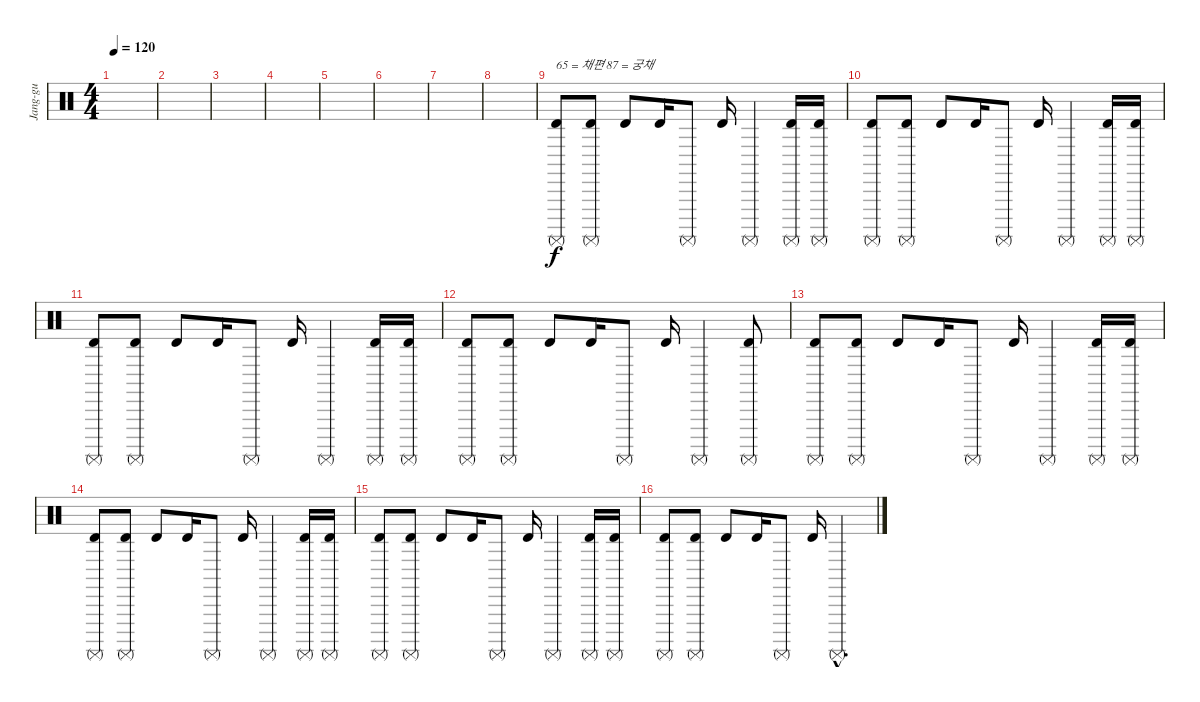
\track ("Jang-gu" "Jang-gu") {instrument percussion}
\staff {score}
\articulation defaults
\ts (4 4)
\tempo 120
\clef neutral
\ks c
|
|
|
|
|
|
|
|
("Timbale high (hit)" "Surdo (mute)").8{txt "65 = 채편 87 = 궁채"} ("Timbale high (hit)" "Surdo (mute)").8 "Timbale high (hit)".8 "Timbale high (hit)".16 "Surdo (mute)".8 "Timbale high (hit)".16 "Surdo (mute)".4 ("Timbale high (hit)" "Surdo (mute)").16 ("Timbale high (hit)" "Surdo (mute)").16 |
("Timbale high (hit)" "Surdo (mute)").8 ("Timbale high (hit)" "Surdo (mute)").8 "Timbale high (hit)".8 "Timbale high (hit)".16 "Surdo (mute)".8 "Timbale high (hit)".16 "Surdo (mute)".4 ("Timbale high (hit)" "Surdo (mute)").16 ("Timbale high (hit)" "Surdo (mute)").16 |
("Timbale high (hit)" "Surdo (mute)").8 ("Timbale high (hit)" "Surdo (mute)").8 "Timbale high (hit)".8 "Timbale high (hit)".16 "Surdo (mute)".8 "Timbale high (hit)".16 "Surdo (mute)".4 ("Timbale high (hit)" "Surdo (mute)").16 ("Timbale high (hit)" "Surdo (mute)").16 |
("Timbale high (hit)" "Surdo (mute)").8 ("Timbale high (hit)" "Surdo (mute)").8 "Timbale high (hit)".8 "Timbale high (hit)".16 "Surdo (mute)".8 "Timbale high (hit)".16 "Surdo (mute)".4 ("Timbale high (hit)" "Surdo (mute)").8 |
("Timbale high (hit)" "Surdo (mute)").8 ("Timbale high (hit)" "Surdo (mute)").8 "Timbale high (hit)".8 "Timbale high (hit)".16 "Surdo (mute)".8 "Timbale high (hit)".16 "Surdo (mute)".4 ("Timbale high (hit)" "Surdo (mute)").16 ("Timbale high (hit)" "Surdo (mute)").16 |
("Timbale high (hit)" "Surdo (mute)").8 ("Timbale high (hit)" "Surdo (mute)").8 "Timbale high (hit)".8 "Timbale high (hit)".16 "Surdo (mute)".8 "Timbale high (hit)".16 "Surdo (mute)".4 ("Timbale high (hit)" "Surdo (mute)").16 ("Timbale high (hit)" "Surdo (mute)").16 |
("Timbale high (hit)" "Surdo (mute)").8 ("Timbale high (hit)" "Surdo (mute)").8 "Timbale high (hit)".8 "Timbale high (hit)".16 "Surdo (mute)".8 "Timbale high (hit)".16 "Surdo (mute)".4 ("Timbale high (hit)" "Surdo (mute)").16 ("Timbale high (hit)" "Surdo (mute)").16 |
("Timbale high (hit)" "Surdo (mute)").8 ("Timbale high (hit)" "Surdo (mute)").8 "Timbale high (hit)".8 "Timbale high (hit)".16 "Surdo (mute)".8 "Timbale high (hit)".16 "Surdo (mute)"{hac}.4{d}
